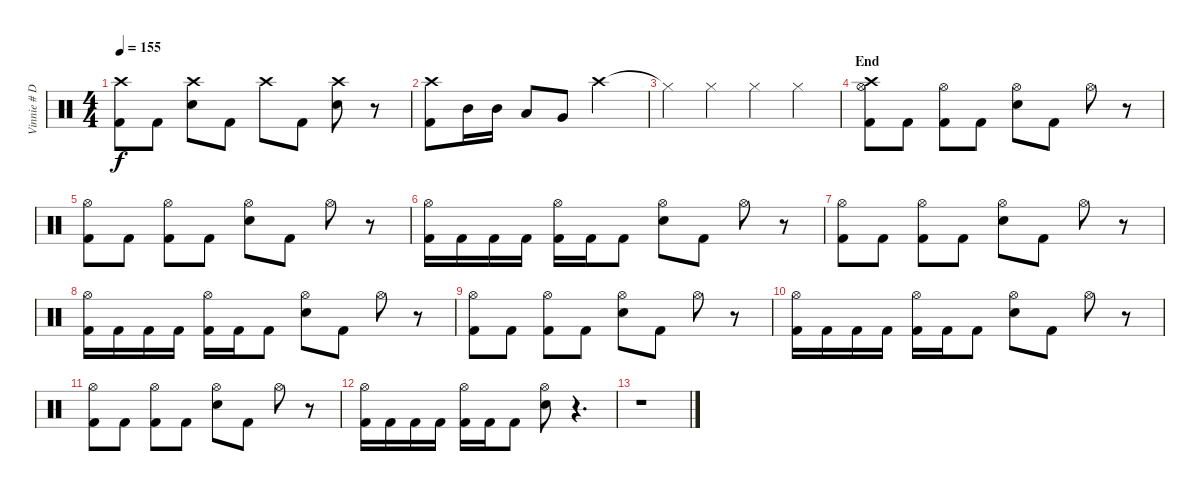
\track ("Vinnie # Drums" "Vinnie # D") {instrument percussion}
\staff {score}
\articulation defaults
\ts (4 4)
\tempo 155
\clef neutral
\ks c
("Crash high (hit)" "Kick (hit) 2").8{dy f} "Kick (hit) 2".8 ("Crash high (hit)" "Electric Snare (hit)").8 "Kick (hit) 2".8 "Crash high (hit)".8 "Kick (hit) 2".8 ("Crash high (hit)" "Electric Snare (hit)").8 r.8 |
("Crash high (hit)" "Kick (hit) 2").8 "Mid Tom (hit)".16 "Mid Tom (hit)".16 "Low Tom (hit)".8 "Very Low Tom (hit)".8 "Crash high (hit)".2 |
"Hi-Hat (closed)"{t}.4 "Hi-Hat (closed)".4 "Hi-Hat (closed)".4 "Hi-Hat (closed)".4 |
\section ("" "End")
("Crash high (hit)" "Hi-Hat (open)" "Kick (hit) 2").8 "Kick (hit) 2".8 ("Hi-Hat (open)" "Kick (hit) 2").8 "Kick (hit) 2".8 ("Hi-Hat (open)" "Electric Snare (hit)").8 "Kick (hit) 2".8 "Hi-Hat (open)".8 r.8 |
("Hi-Hat (open)" "Kick (hit) 2").8 "Kick (hit) 2".8 ("Hi-Hat (open)" "Kick (hit) 2").8 "Kick (hit) 2".8 ("Hi-Hat (open)" "Electric Snare (hit)").8 "Kick (hit) 2".8 "Hi-Hat (open)".8 r.8 |
("Hi-Hat (open)" "Kick (hit) 2").16 "Kick (hit) 2".16 "Kick (hit) 2".16 "Kick (hit) 2".16 ("Hi-Hat (open)" "Kick (hit) 2").16 "Kick (hit) 2".16 "Kick (hit) 2".8 ("Hi-Hat (open)" "Electric Snare (hit)").8 "Kick (hit) 2".8 "Hi-Hat (open)".8 r.8 |
("Hi-Hat (open)" "Kick (hit) 2").8 "Kick (hit) 2".8 ("Hi-Hat (open)" "Kick (hit) 2").8 "Kick (hit) 2".8 ("Hi-Hat (open)" "Electric Snare (hit)").8 "Kick (hit) 2".8 "Hi-Hat (open)".8 r.8 |
("Hi-Hat (open)" "Kick (hit) 2").16 "Kick (hit) 2".16 "Kick (hit) 2".16 "Kick (hit) 2".16 ("Hi-Hat (open)" "Kick (hit) 2").16 "Kick (hit) 2".16 "Kick (hit) 2".8 ("Hi-Hat (open)" "Electric Snare (hit)").8 "Kick (hit) 2".8 "Hi-Hat (open)".8 r.8 |
("Hi-Hat (open)" "Kick (hit) 2").8 "Kick (hit) 2".8 ("Hi-Hat (open)" "Kick (hit) 2").8 "Kick (hit) 2".8 ("Hi-Hat (open)" "Electric Snare (hit)").8 "Kick (hit) 2".8 "Hi-Hat (open)".8 r.8 |
("Hi-Hat (open)" "Kick (hit) 2").16 "Kick (hit) 2".16 "Kick (hit) 2".16 "Kick (hit) 2".16 ("Hi-Hat (open)" "Kick (hit) 2").16 "Kick (hit) 2".16 "Kick (hit) 2".8 ("Hi-Hat (open)" "Electric Snare (hit)").8 "Kick (hit) 2".8 "Hi-Hat (open)".8 r.8 |
("Hi-Hat (open)" "Kick (hit) 2").8 "Kick (hit) 2".8 ("Hi-Hat (open)" "Kick (hit) 2").8 "Kick (hit) 2".8 ("Hi-Hat (open)" "Electric Snare (hit)").8 "Kick (hit) 2".8 "Hi-Hat (open)".8 r.8 |
("Hi-Hat (open)" "Kick (hit) 2").16 "Kick (hit) 2".16 "Kick (hit) 2".16 "Kick (hit) 2".16 ("Hi-Hat (open)" "Kick (hit) 2").16 "Kick (hit) 2".16 "Kick (hit) 2".8 ("Hi-Hat (open)" "Electric Snare (hit)").8 r.4{d} |
r.1
